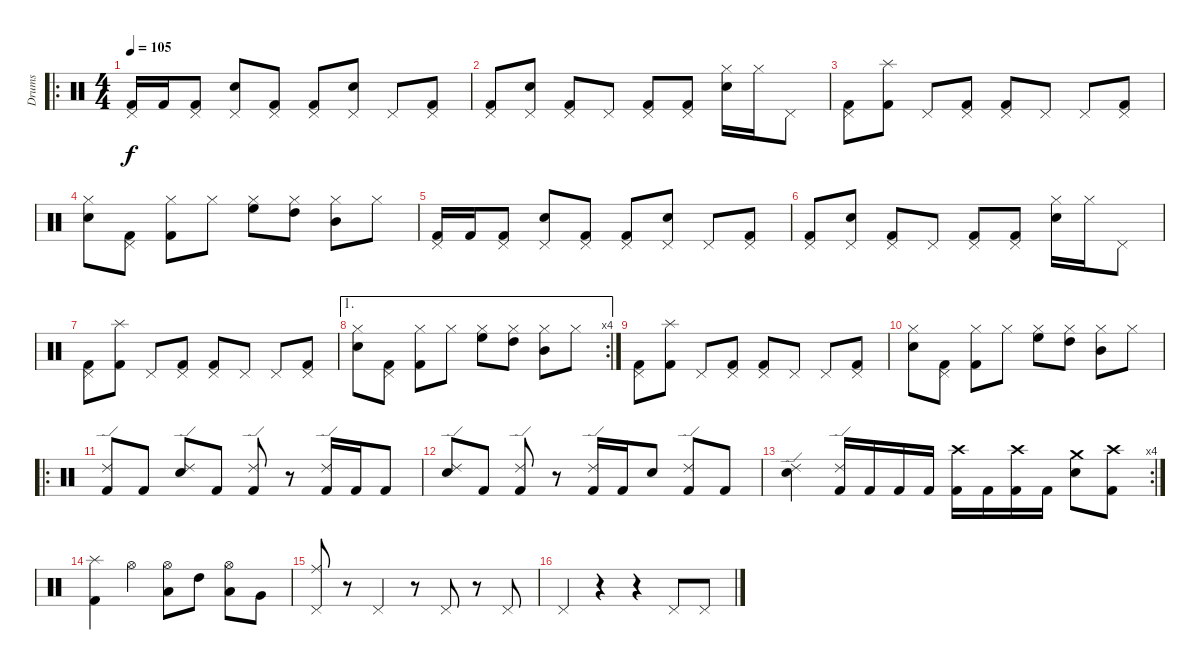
\track (" Drums" " Drums") {instrument percussion}
\staff {score}
\articulation defaults
\ro
\ts (4 4)
\tempo 105
\clef neutral
\ks c
("Pedal Hi-Hat (hit)" "Kick (hit) 2").16{dy f} "Kick (hit) 2".16 ("Pedal Hi-Hat (hit)" "Kick (hit) 2").8 ("Pedal Hi-Hat (hit)" "Electric Snare (hit)").8 ("Pedal Hi-Hat (hit)" "Kick (hit) 2").8 ("Pedal Hi-Hat (hit)" "Kick (hit) 2").8 ("Pedal Hi-Hat (hit)" "Electric Snare (hit)").8 "Pedal Hi-Hat (hit)".8 ("Pedal Hi-Hat (hit)" "Kick (hit) 2").8 |
("Pedal Hi-Hat (hit)" "Kick (hit) 2").8 ("Pedal Hi-Hat (hit)" "Electric Snare (hit)").8 ("Pedal Hi-Hat (hit)" "Kick (hit) 2").8 "Pedal Hi-Hat (hit)".8 ("Pedal Hi-Hat (hit)" "Kick (hit) 2").8 ("Pedal Hi-Hat (hit)" "Kick (hit) 2").8 ("Hi-Hat (closed)" "Electric Snare (hit)").16 "Hi-Hat (closed)".16 "Pedal Hi-Hat (hit)".8 |
("Pedal Hi-Hat (hit)" "Kick (hit) 2").8 ("Splash (hit)" "Kick (hit) 2").8 "Pedal Hi-Hat (hit)".8 ("Pedal Hi-Hat (hit)" "Kick (hit) 2").8 ("Pedal Hi-Hat (hit)" "Kick (hit) 2").8 "Pedal Hi-Hat (hit)".8 "Pedal Hi-Hat (hit)".8 ("Pedal Hi-Hat (hit)" "Kick (hit) 2").8 |
("Hi-Hat (closed)" "Electric Snare (hit)").8 ("Pedal Hi-Hat (hit)" "Kick (hit) 2").8 ("Hi-Hat (closed)" "Kick (hit) 2").8 "Hi-Hat (closed)".8 ("Hi-Hat (closed)" "High Floor Tom (hit)").8 ("Hi-Hat (closed)" "High Tom (hit)").8 ("Hi-Hat (closed)" "Mid Tom (hit)").8 "Hi-Hat (closed)".8 |
("Pedal Hi-Hat (hit)" "Kick (hit) 2").16 "Kick (hit) 2".16 ("Pedal Hi-Hat (hit)" "Kick (hit) 2").8 ("Pedal Hi-Hat (hit)" "Electric Snare (hit)").8 ("Pedal Hi-Hat (hit)" "Kick (hit) 2").8 ("Pedal Hi-Hat (hit)" "Kick (hit) 2").8 ("Pedal Hi-Hat (hit)" "Electric Snare (hit)").8 "Pedal Hi-Hat (hit)".8 ("Pedal Hi-Hat (hit)" "Kick (hit) 2").8 |
("Pedal Hi-Hat (hit)" "Kick (hit) 2").8 ("Pedal Hi-Hat (hit)" "Electric Snare (hit)").8 ("Pedal Hi-Hat (hit)" "Kick (hit) 2").8 "Pedal Hi-Hat (hit)".8 ("Pedal Hi-Hat (hit)" "Kick (hit) 2").8 ("Pedal Hi-Hat (hit)" "Kick (hit) 2").8 ("Hi-Hat (closed)" "Electric Snare (hit)").16 "Hi-Hat (closed)".16 "Pedal Hi-Hat (hit)".8 |
("Pedal Hi-Hat (hit)" "Kick (hit) 2").8 ("Splash (hit)" "Kick (hit) 2").8 "Pedal Hi-Hat (hit)".8 ("Pedal Hi-Hat (hit)" "Kick (hit) 2").8 ("Pedal Hi-Hat (hit)" "Kick (hit) 2").8 "Pedal Hi-Hat (hit)".8 "Pedal Hi-Hat (hit)".8 ("Pedal Hi-Hat (hit)" "Kick (hit) 2").8 |
\ae 1
\rc 4
("Hi-Hat (closed)" "Electric Snare (hit)").8 ("Pedal Hi-Hat (hit)" "Kick (hit) 2").8 ("Hi-Hat (closed)" "Kick (hit) 2").8 "Hi-Hat (closed)".8 ("Hi-Hat (closed)" "High Floor Tom (hit)").8 ("Hi-Hat (closed)" "High Tom (hit)").8 ("Hi-Hat (closed)" "Mid Tom (hit)").8 "Hi-Hat (closed)".8 |
("Pedal Hi-Hat (hit)" "Kick (hit) 2").8 ("Splash (hit)" "Kick (hit) 2").8 "Pedal Hi-Hat (hit)".8 ("Pedal Hi-Hat (hit)" "Kick (hit) 2").8 ("Pedal Hi-Hat (hit)" "Kick (hit) 2").8 "Pedal Hi-Hat (hit)".8 "Pedal Hi-Hat (hit)".8 ("Pedal Hi-Hat (hit)" "Kick (hit) 2").8 |
("Hi-Hat (closed)" "Electric Snare (hit)").8 ("Pedal Hi-Hat (hit)" "Kick (hit) 2").8 ("Hi-Hat (closed)" "Kick (hit) 2").8 "Hi-Hat (closed)".8 ("Hi-Hat (closed)" "High Floor Tom (hit)").8 ("Hi-Hat (closed)" "High Tom (hit)").8 ("Hi-Hat (closed)" "Mid Tom (hit)").8 "Hi-Hat (closed)".8 |
\ro
("Ride (edge) 2" "Kick (hit) 2").8 "Kick (hit) 2".8 ("Ride (edge) 2" "Electric Snare (hit)").8 "Kick (hit) 2".8 ("Ride (edge) 2" "Kick (hit) 2").8 r.8 ("Ride (edge) 2" "Kick (hit) 2").16 "Kick (hit) 2".16 "Kick (hit) 2".8 |
("Ride (edge) 2" "Electric Snare (hit)").8 "Kick (hit) 2".8 ("Ride (edge) 2" "Kick (hit) 2").8 r.8 ("Ride (edge) 2" "Kick (hit) 2").16 "Kick (hit) 2".16 "Electric Snare (hit)".8 ("Ride (edge) 2" "Kick (hit) 2").8 "Kick (hit) 2".8 |
\rc 4
("Ride (edge) 2" "Electric Snare (hit)").4 ("Ride (edge) 2" "Kick (hit) 2").16 "Kick (hit) 2".16 "Kick (hit) 2".16 "Kick (hit) 2".16 ("Crash high (hit)" "Kick (hit) 2").16 "Kick (hit) 2".16 ("Crash high (hit)" "Kick (hit) 2").16 "Kick (hit) 2".16 ("Crash medium (hit)" "Electric Snare (hit)").8 ("Crash high (hit)" "Kick (hit) 2").8 |
("Splash (hit)" "Kick (hit) 2").4 "Hi-Hat (open)".4 ("Hi-Hat (open)" "Low Floor Tom (hit)").8 "High Tom (hit)".8 ("Hi-Hat (open)" "Low Tom (hit)").8 "Very Low Tom (hit)".8 |
("Ride (middle)" "Pedal Hi-Hat (hit)").8 r.8 "Pedal Hi-Hat (hit)".4 r.8 "Pedal Hi-Hat (hit)".8 r.8 "Pedal Hi-Hat (hit)".8 |
"Pedal Hi-Hat (hit)".4 r.4 r.4 "Pedal Hi-Hat (hit)".8 "Pedal Hi-Hat (hit)".8
